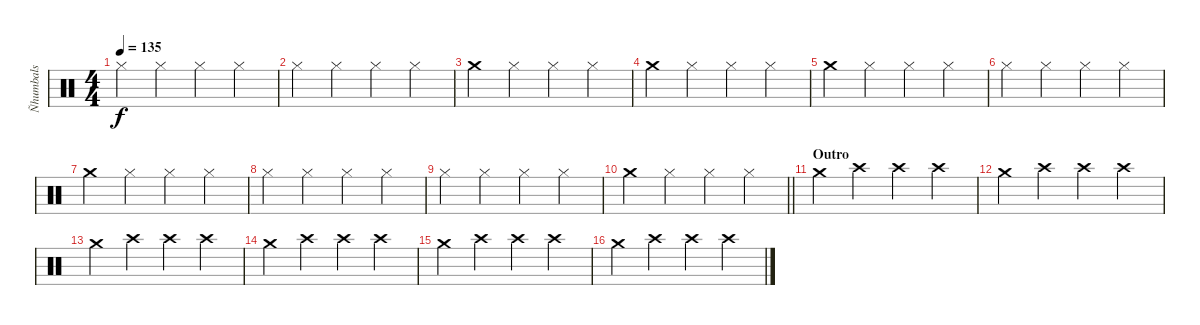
\track ("Ñhumbals" "Ñhumbals") {instrument percussion}
\staff {score}
\articulation defaults
\ts (4 4)
\tempo 135
\clef neutral
\ks c "Hi-Hat (closed)".4{dy f} "Hi-Hat (closed)".4 "Hi-Hat (closed)".4 "Hi-Hat (closed)".4
|
"Hi-Hat (closed)".4 "Hi-Hat (closed)".4 "Hi-Hat (closed)".4 "Hi-Hat (closed)".4 |
"Crash medium (hit)".4 "Hi-Hat (closed)".4 "Hi-Hat (closed)".4 "Hi-Hat (closed)".4 |
"Crash medium (hit)".4 "Hi-Hat (closed)".4 "Hi-Hat (closed)".4 "Hi-Hat (closed)".4 |
"Crash medium (hit)".4 "Hi-Hat (closed)".4 "Hi-Hat (closed)".4 "Hi-Hat (closed)".4 |
"Hi-Hat (closed)".4 "Hi-Hat (closed)".4 "Hi-Hat (closed)".4 "Hi-Hat (closed)".4 |
"Crash medium (hit)".4 "Hi-Hat (closed)".4 "Hi-Hat (closed)".4 "Hi-Hat (closed)".4 |
"Hi-Hat (closed)".4 "Hi-Hat (closed)".4 "Hi-Hat (closed)".4 "Hi-Hat (closed)".4 |
"Hi-Hat (closed)".4 "Hi-Hat (closed)".4 "Hi-Hat (closed)".4 "Hi-Hat (closed)".4 |
\barLineRight lightlight "Crash medium (hit)".4 "Hi-Hat (closed)".4 "Hi-Hat (closed)".4 "Hi-Hat (closed)".4
|
\section ("" "Outro")
"Crash medium (hit)".4 "Crash high (hit)".4 "Crash high (hit)".4 "Crash high (hit)".4 |
"Crash medium (hit)".4 "Crash high (hit)".4 "Crash high (hit)".4 "Crash high (hit)".4 |
"Crash medium (hit)".4 "Crash high (hit)".4 "Crash high (hit)".4 "Crash high (hit)".4 |
"Crash medium (hit)".4 "Crash high (hit)".4 "Crash high (hit)".4 "Crash high (hit)".4 |
"Crash medium (hit)".4 "Crash high (hit)".4 "Crash high (hit)".4 "Crash high (hit)".4 |
"Crash medium (hit)".4 "Crash high (hit)".4 "Crash high (hit)".4 "Crash high (hit)".4
